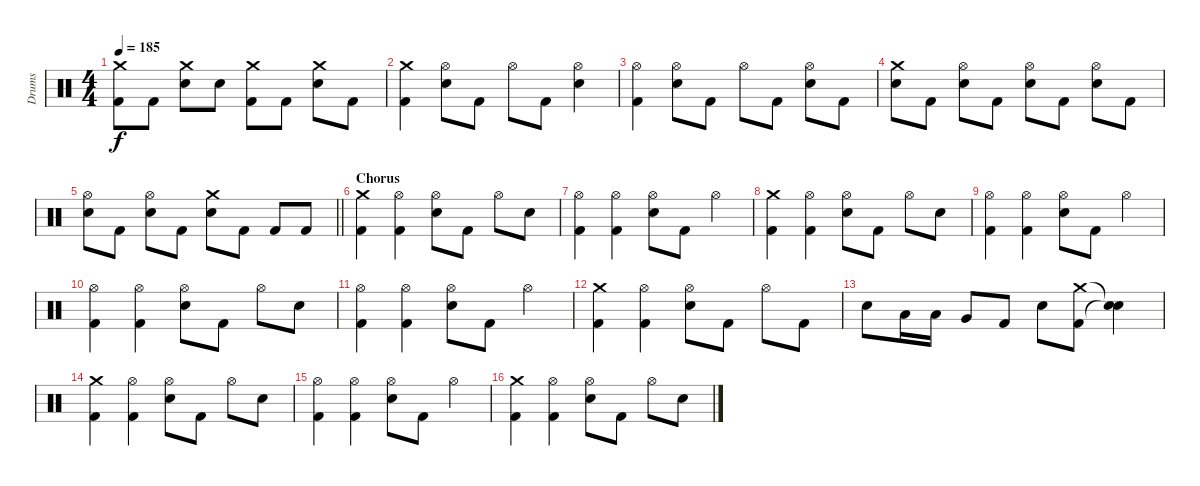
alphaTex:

\track ("Drums" "Drums") {instrument percussion}
\staff {score}
\articulation defaults
\ts (4 4)
\tempo 185
\clef neutral
\ks c
("Crash medium (hit)" "Kick (hit) 2").8{dy f} "Kick (hit) 2".8 ("Crash medium (hit)" "Electric Snare (hit)").8 "Electric Snare (hit)".8 ("Crash medium (hit)" "Kick (hit) 2").8 "Kick (hit) 2".8 ("Crash medium (hit)" "Electric Snare (hit)").8 "Kick (hit) 2".8 |
("Crash medium (hit)" "Kick (hit) 2").4 ("Hi-Hat (open)" "Electric Snare (hit)").8 "Kick (hit) 2".8 "Hi-Hat (open)".8 "Kick (hit) 2".8 ("Hi-Hat (open)" "Electric Snare (hit)").4 |
("Hi-Hat (open)" "Kick (hit) 2").4 ("Hi-Hat (open)" "Electric Snare (hit)").8 "Kick (hit) 2".8 "Hi-Hat (open)".8 "Kick (hit) 2".8 ("Hi-Hat (open)" "Electric Snare (hit)").8 "Kick (hit) 2".8 |
("Crash medium (hit)" "Electric Snare (hit)").8 "Kick (hit) 2".8 ("Hi-Hat (open)" "Electric Snare (hit)").8 "Kick (hit) 2".8 ("Hi-Hat (open)" "Electric Snare (hit)").8 "Kick (hit) 2".8 ("Hi-Hat (open)" "Electric Snare (hit)").8 "Kick (hit) 2".8 |
\barLineRight lightlight
("Hi-Hat (open)" "Electric Snare (hit)").8 "Kick (hit) 2".8 ("Hi-Hat (open)" "Electric Snare (hit)").8 "Kick (hit) 2".8 ("Crash medium (hit)" "Electric Snare (hit)").8 "Kick (hit) 2".8 "Kick (hit) 2".8 "Kick (hit) 2".8 |
\section ("" "Chorus")
("Crash medium (hit)" "Kick (hit) 2").4 ("Hi-Hat (open)" "Kick (hit) 2").4 ("Hi-Hat (open)" "Electric Snare (hit)").8 "Kick (hit) 2".8 "Hi-Hat (open)".8 "Electric Snare (hit)".8 |
("Hi-Hat (open)" "Kick (hit) 2").4 ("Hi-Hat (open)" "Kick (hit) 2").4 ("Hi-Hat (open)" "Electric Snare (hit)").8 "Kick (hit) 2".8 "Hi-Hat (open)".4 |
("Crash medium (hit)" "Kick (hit) 2").4 ("Hi-Hat (open)" "Kick (hit) 2").4 ("Hi-Hat (open)" "Electric Snare (hit)").8 "Kick (hit) 2".8 "Hi-Hat (open)".8 "Electric Snare (hit)".8 |
("Hi-Hat (open)" "Kick (hit) 2").4 ("Hi-Hat (open)" "Kick (hit) 2").4 ("Hi-Hat (open)" "Electric Snare (hit)").8 "Kick (hit) 2".8 "Hi-Hat (open)".4 |
("Hi-Hat (open)" "Kick (hit) 2").4 ("Hi-Hat (open)" "Kick (hit) 2").4 ("Hi-Hat (open)" "Electric Snare (hit)").8 "Kick (hit) 2".8 "Hi-Hat (open)".8 "Electric Snare (hit)".8 |
("Hi-Hat (open)" "Kick (hit) 2").4 ("Hi-Hat (open)" "Kick (hit) 2").4 ("Hi-Hat (open)" "Electric Snare (hit)").8 "Kick (hit) 2".8 "Hi-Hat (open)".4 |
("Crash medium (hit)" "Kick (hit) 2").4 ("Hi-Hat (open)" "Kick (hit) 2").4 ("Hi-Hat (open)" "Electric Snare (hit)").8 "Kick (hit) 2".8 "Hi-Hat (open)".8 "Kick (hit) 2".8 |
"Electric Snare (hit)".8 "Low Tom (hit)".16 "Low Tom (hit)".16 "Very Low Tom (hit)".8 "Kick (hit) 2".8 "Electric Snare (hit)".8 ("Crash medium (hit)" "Kick (hit) 2").8 ("Snare (hit)"{t} "Snare (hit)"{t}).4 |
("Crash medium (hit)" "Kick (hit) 2").4 ("Hi-Hat (open)" "Kick (hit) 2").4 ("Hi-Hat (open)" "Electric Snare (hit)").8 "Kick (hit) 2".8 "Hi-Hat (open)".8 "Electric Snare (hit)".8 |
("Hi-Hat (open)" "Kick (hit) 2").4 ("Hi-Hat (open)" "Kick (hit) 2").4 ("Hi-Hat (open)" "Electric Snare (hit)").8 "Kick (hit) 2".8 "Hi-Hat (open)".4 |
("Crash medium (hit)" "Kick (hit) 2").4 ("Hi-Hat (open)" "Kick (hit) 2").4 ("Hi-Hat (open)" "Electric Snare (hit)").8 "Kick (hit) 2".8 "Hi-Hat (open)".8 "Electric Snare (hit)".8
